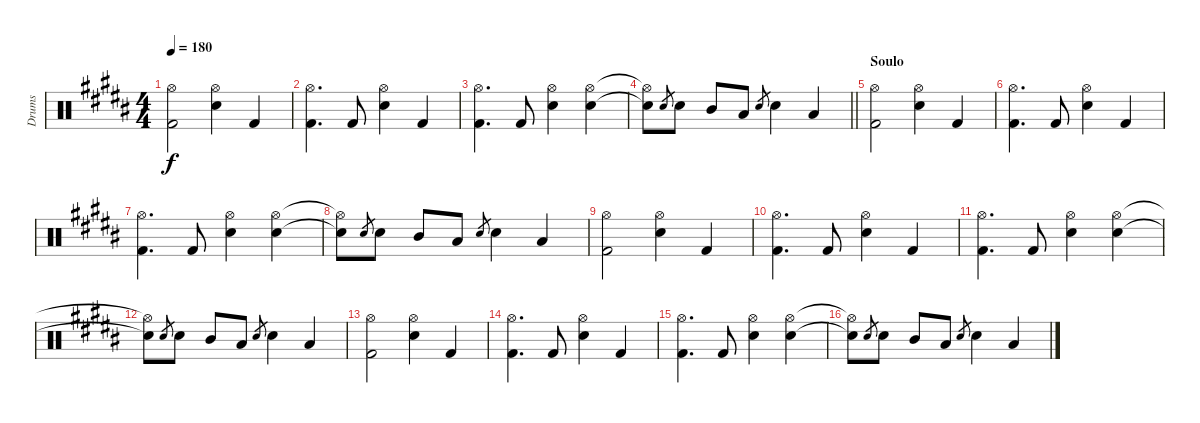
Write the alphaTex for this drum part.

\track ("Drums" "Drums") {instrument percussion}
\staff {score}
\articulation defaults
\ts (4 4)
\tempo 180
\clef neutral
\ks g#minor
("Kick (hit) 2" "Hi-Hat (open)").2{dy f} ("Hi-Hat (open)" "Snare (hit) 2").4 "Kick (hit) 2".4 |
("Kick (hit) 2" "Hi-Hat (open)").4{d} "Kick (hit) 2".8 ("Hi-Hat (open)" "Snare (hit) 2").4 "Kick (hit) 2".4 |
("Kick (hit) 2" "Hi-Hat (open)").4{d} "Kick (hit) 2".8 ("Hi-Hat (open)" "Snare (hit) 2").4 ("Hi-Hat (open)" "Snare (hit) 2").4 |
\barLineRight lightlight
("Hi-Hat (open)"{t} "Snare (hit) 2"{t}).8 "Snare (hit) 2".8{gr} "Snare (hit) 2".8 "Mid Tom (hit)".8 "Low Tom (hit)".8 "Snare (hit) 2".8{gr} "Snare (hit) 2".4 "Low Tom (hit)".4 |
\section ("" "Soulo")
("Kick (hit) 2" "Hi-Hat (open)").2 ("Hi-Hat (open)" "Snare (hit) 2").4 "Kick (hit) 2".4 |
("Kick (hit) 2" "Hi-Hat (open)").4{d} "Kick (hit) 2".8 ("Hi-Hat (open)" "Snare (hit) 2").4 "Kick (hit) 2".4 |
("Kick (hit) 2" "Hi-Hat (open)").4{d} "Kick (hit) 2".8 ("Hi-Hat (open)" "Snare (hit) 2").4 ("Hi-Hat (open)" "Snare (hit) 2").4 |
("Hi-Hat (open)"{t} "Snare (hit) 2"{t}).8 "Snare (hit) 2".8{gr} "Snare (hit) 2".8 "Mid Tom (hit)".8 "Low Tom (hit)".8 "Snare (hit) 2".8{gr} "Snare (hit) 2".4 "Low Tom (hit)".4 |
("Kick (hit) 2" "Hi-Hat (open)").2 ("Hi-Hat (open)" "Snare (hit) 2").4 "Kick (hit) 2".4 |
("Kick (hit) 2" "Hi-Hat (open)").4{d} "Kick (hit) 2".8 ("Hi-Hat (open)" "Snare (hit) 2").4 "Kick (hit) 2".4 |
("Kick (hit) 2" "Hi-Hat (open)").4{d} "Kick (hit) 2".8 ("Hi-Hat (open)" "Snare (hit) 2").4 ("Hi-Hat (open)" "Snare (hit) 2").4 |
("Hi-Hat (open)"{t} "Snare (hit) 2"{t}).8 "Snare (hit) 2".8{gr} "Snare (hit) 2".8 "Mid Tom (hit)".8 "Low Tom (hit)".8 "Snare (hit) 2".8{gr} "Snare (hit) 2".4 "Low Tom (hit)".4 |
("Kick (hit) 2" "Hi-Hat (open)").2 ("Hi-Hat (open)" "Snare (hit) 2").4 "Kick (hit) 2".4 |
("Kick (hit) 2" "Hi-Hat (open)").4{d} "Kick (hit) 2".8 ("Hi-Hat (open)" "Snare (hit) 2").4 "Kick (hit) 2".4 |
("Kick (hit) 2" "Hi-Hat (open)").4{d} "Kick (hit) 2".8 ("Hi-Hat (open)" "Snare (hit) 2").4 ("Hi-Hat (open)" "Snare (hit) 2").4 |
("Hi-Hat (open)"{t} "Snare (hit) 2"{t}).8 "Snare (hit) 2".8{gr} "Snare (hit) 2".8 "Mid Tom (hit)".8 "Low Tom (hit)".8 "Snare (hit) 2".8{gr} "Snare (hit) 2".4 "Low Tom (hit)".4
